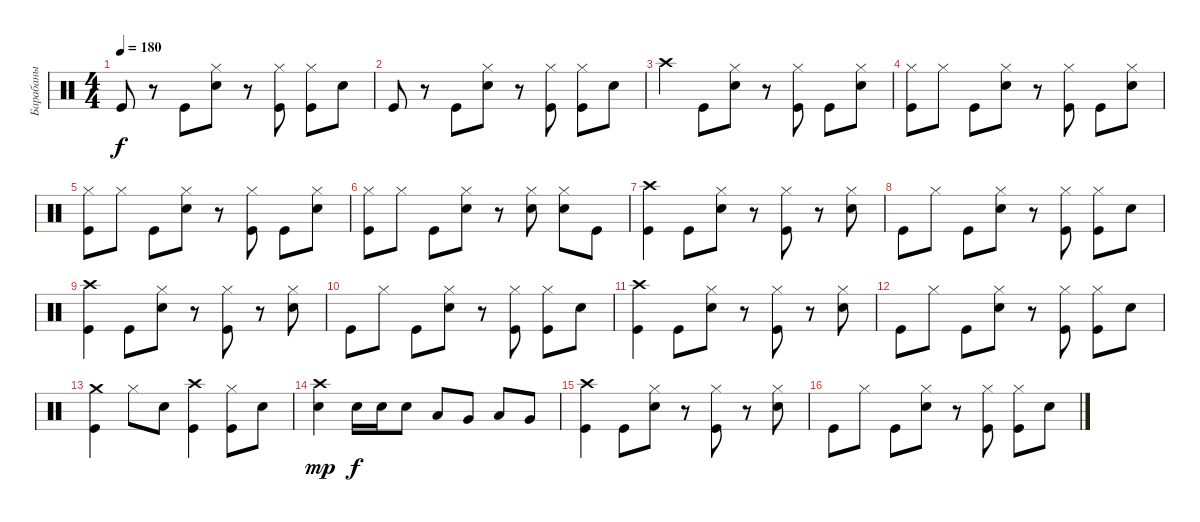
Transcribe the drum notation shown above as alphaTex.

\track ("Барабаны" "Барабаны") {instrument percussion}
\staff {score}
\articulation defaults
\ts (4 4)
\tempo 180
\clef neutral
\ks c "Kick (hit)".8{dy f}
r.8 "Kick (hit)".8 ("Hi-Hat (closed)" "Electric Snare (hit)").8 r.8 ("Kick (hit)" "Hi-Hat (closed)").8 ("Hi-Hat (closed)" "Kick (hit)").8 "Electric Snare (hit)".8 |
"Kick (hit)".8 r.8 "Kick (hit)".8 ("Hi-Hat (closed)" "Electric Snare (hit)").8 r.8 ("Hi-Hat (closed)" "Kick (hit)").8 ("Hi-Hat (closed)" "Kick (hit)").8 "Electric Snare (hit)".8 |
"Crash high (hit)".4 "Kick (hit)".8 ("Hi-Hat (closed)" "Electric Snare (hit)").8 r.8 ("Kick (hit)" "Hi-Hat (closed)").8 "Kick (hit)".8 ("Electric Snare (hit)" "Hi-Hat (closed)").8 |
("Hi-Hat (closed)" "Kick (hit)").8 "Hi-Hat (closed)".8 "Kick (hit)".8 ("Hi-Hat (closed)" "Electric Snare (hit)").8 r.8 ("Hi-Hat (closed)" "Kick (hit)").8 "Kick (hit)".8 ("Electric Snare (hit)" "Hi-Hat (closed)").8 |
("Kick (hit)" "Hi-Hat (closed)").8 "Hi-Hat (closed)".8 "Kick (hit)".8 ("Electric Snare (hit)" "Hi-Hat (closed)").8 r.8 ("Hi-Hat (closed)" "Kick (hit)").8 "Kick (hit)".8 ("Electric Snare (hit)" "Hi-Hat (closed)").8 |
("Hi-Hat (closed)" "Kick (hit)").8 "Hi-Hat (closed)".8 "Kick (hit)".8 ("Hi-Hat (closed)" "Electric Snare (hit)").8 r.8 ("Hi-Hat (closed)" "Electric Snare (hit)").8 ("Hi-Hat (closed)" "Electric Snare (hit)").8 "Kick (hit)".8 |
("Kick (hit)" "Crash high (hit)").4 "Kick (hit)".8 ("Hi-Hat (closed)" "Electric Snare (hit)").8 r.8 ("Hi-Hat (closed)" "Kick (hit)").8 r.8 ("Hi-Hat (closed)" "Electric Snare (hit)").8 |
"Kick (hit)".8 "Hi-Hat (closed)".8 "Kick (hit)".8 ("Hi-Hat (closed)" "Electric Snare (hit)").8 r.8 ("Kick (hit)" "Hi-Hat (closed)").8 ("Kick (hit)" "Hi-Hat (closed)").8 "Electric Snare (hit)".8 |
("Kick (hit)" "Crash high (hit)").4 "Kick (hit)".8 ("Electric Snare (hit)" "Hi-Hat (closed)").8 r.8 ("Kick (hit)" "Hi-Hat (closed)").8 r.8 ("Hi-Hat (closed)" "Electric Snare (hit)").8 |
"Kick (hit)".8 "Hi-Hat (closed)".8 "Kick (hit)".8 ("Electric Snare (hit)" "Hi-Hat (closed)").8 r.8 ("Hi-Hat (closed)" "Kick (hit)").8 ("Hi-Hat (closed)" "Kick (hit)").8 "Electric Snare (hit)".8 |
("Crash high (hit)" "Kick (hit)").4 "Kick (hit)".8 ("Electric Snare (hit)" "Hi-Hat (closed)").8 r.8 ("Hi-Hat (closed)" "Kick (hit)").8 r.8 ("Hi-Hat (closed)" "Electric Snare (hit)").8 |
"Kick (hit)".8 "Hi-Hat (closed)".8 "Kick (hit)".8 ("Hi-Hat (closed)" "Electric Snare (hit)").8 r.8 ("Kick (hit)" "Hi-Hat (closed)").8 ("Hi-Hat (closed)" "Kick (hit)").8 "Electric Snare (hit)".8 |
("Crash medium (hit)" "Kick (hit)").4 "Hi-Hat (closed)".8 "Electric Snare (hit)".8 ("Kick (hit)" "Crash high (hit)").4 ("Kick (hit)" "Hi-Hat (closed)").8 "Electric Snare (hit)".8 |
("Electric Snare (hit)" "Crash high (hit)").4{dy mp} "Electric Snare (hit)".16{dy f} "Electric Snare (hit)".16 "Electric Snare (hit)".8 "Low Tom (hit)".8 "Very Low Tom (hit)".8 "Low Floor Tom (hit)".8 "Very Low Tom (hit)".8 |
("Kick (hit)" "Crash high (hit)").4 "Kick (hit)".8 ("Hi-Hat (closed)" "Electric Snare (hit)").8 r.8 ("Hi-Hat (closed)" "Kick (hit)").8 r.8 ("Electric Snare (hit)" "Hi-Hat (closed)").8 |
"Kick (hit)".8 "Hi-Hat (closed)".8 "Kick (hit)".8 ("Electric Snare (hit)" "Hi-Hat (closed)").8 r.8 ("Kick (hit)" "Hi-Hat (closed)").8 ("Kick (hit)" "Hi-Hat (closed)").8 "Electric Snare (hit)".8
